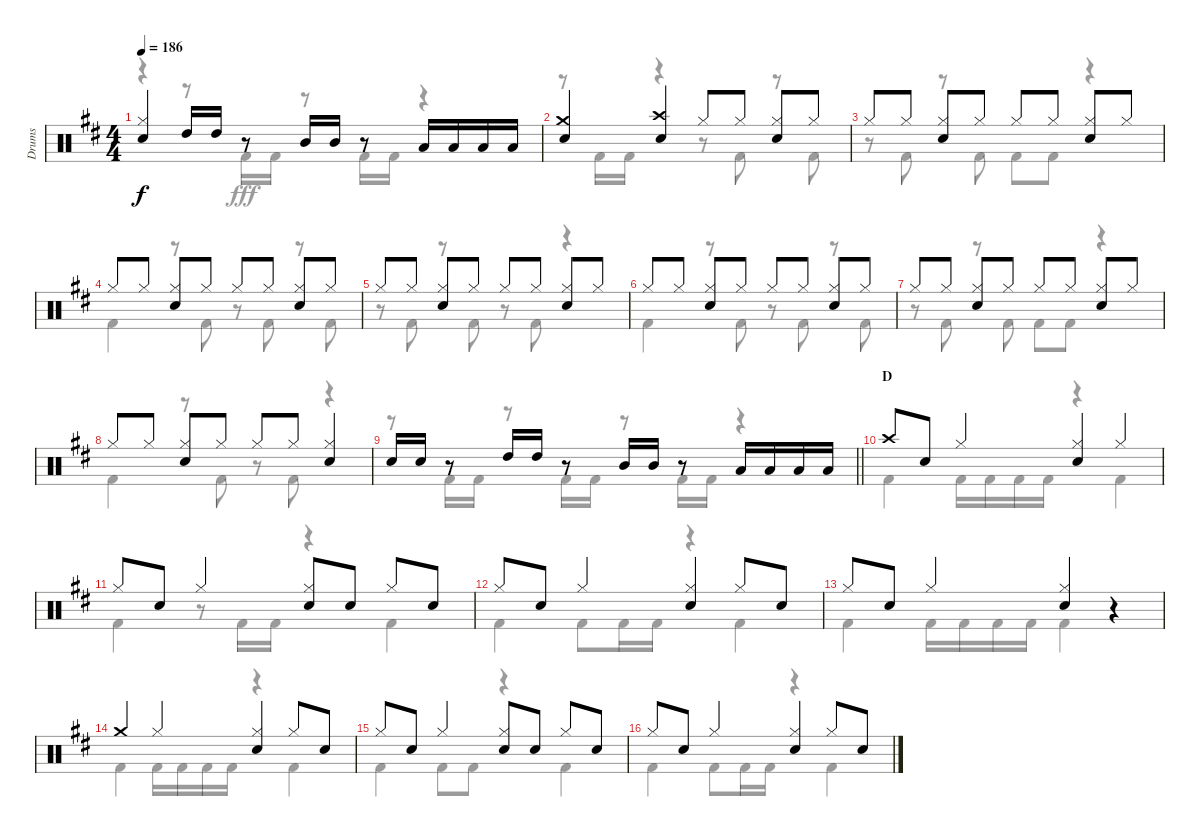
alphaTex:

\track ("Drums" "Drums") {instrument percussion}
\staff {score}
\articulation defaults
\voice
\ts (4 4)
\tempo 186
\clef neutral
\ks d
("Hi-Hat (closed)" "Snare (hit) 2").4{dy f} "High Tom (hit)".16 "High Tom (hit)".16 r.8 "Mid Tom (hit)".16 "Mid Tom (hit)".16 r.8 "Low Tom (hit)".16 "Low Tom (hit)".16 "Low Tom (hit)".16 "Low Tom (hit)".16 |
("Crash medium (hit)" "Snare (hit) 2").4 ("Crash high (hit)" "Snare (hit) 2").4 "Hi-Hat (closed)".8 "Hi-Hat (closed)".8 ("Hi-Hat (closed)" "Snare (hit) 2").8 "Hi-Hat (closed)".8 |
"Hi-Hat (closed)".8 "Hi-Hat (closed)".8 ("Hi-Hat (closed)" "Snare (hit) 2").8 "Hi-Hat (closed)".8 "Hi-Hat (closed)".8 "Hi-Hat (closed)".8 ("Hi-Hat (closed)" "Snare (hit) 2").8 "Hi-Hat (closed)".8 |
"Hi-Hat (closed)".8 "Hi-Hat (closed)".8 ("Hi-Hat (closed)" "Snare (hit) 2").8 "Hi-Hat (closed)".8 "Hi-Hat (closed)".8 "Hi-Hat (closed)".8 ("Hi-Hat (closed)" "Snare (hit) 2").8 "Hi-Hat (closed)".8 |
"Hi-Hat (closed)".8 "Hi-Hat (closed)".8 ("Hi-Hat (closed)" "Snare (hit) 2").8 "Hi-Hat (closed)".8 "Hi-Hat (closed)".8 "Hi-Hat (closed)".8 ("Hi-Hat (closed)" "Snare (hit) 2").8 "Hi-Hat (closed)".8 |
"Hi-Hat (closed)".8 "Hi-Hat (closed)".8 ("Hi-Hat (closed)" "Snare (hit) 2").8 "Hi-Hat (closed)".8 "Hi-Hat (closed)".8 "Hi-Hat (closed)".8 ("Hi-Hat (closed)" "Snare (hit) 2").8 "Hi-Hat (closed)".8 |
"Hi-Hat (closed)".8 "Hi-Hat (closed)".8 ("Hi-Hat (closed)" "Snare (hit) 2").8 "Hi-Hat (closed)".8 "Hi-Hat (closed)".8 "Hi-Hat (closed)".8 ("Hi-Hat (closed)" "Snare (hit) 2").8 "Hi-Hat (closed)".8 |
"Hi-Hat (closed)".8 "Hi-Hat (closed)".8 ("Hi-Hat (closed)" "Snare (hit) 2").8 "Hi-Hat (closed)".8 "Hi-Hat (closed)".8 "Hi-Hat (closed)".8 ("Hi-Hat (closed)" "Snare (hit) 2").4 |
\barLineRight lightlight "Snare (hit) 2".16 "Snare (hit) 2".16
r.8 "High Tom (hit)".16 "High Tom (hit)".16 r.8 "Mid Tom (hit)".16 "Mid Tom (hit)".16 r.8 "Low Tom (hit)".16 "Low Tom (hit)".16 "Low Tom (hit)".16 "Low Tom (hit)".16 |
\section ("" "D")
"Crash high (hit)".8 "Snare (hit) 2".8 "Hi-Hat (closed)".4 ("Hi-Hat (closed)" "Snare (hit) 2").4 "Hi-Hat (closed)".4 |
"Hi-Hat (closed)".8 "Snare (hit) 2".8 "Hi-Hat (closed)".4 ("Hi-Hat (closed)" "Snare (hit) 2").8 "Snare (hit) 2".8 "Hi-Hat (closed)".8 "Snare (hit) 2".8 |
"Hi-Hat (closed)".8 "Snare (hit) 2".8 "Hi-Hat (closed)".4 ("Hi-Hat (closed)" "Snare (hit) 2").4 "Hi-Hat (closed)".8 "Snare (hit) 2".8 |
"Hi-Hat (closed)".8 "Snare (hit) 2".8 "Hi-Hat (closed)".4 ("Hi-Hat (closed)" "Snare (hit) 2").4 r.4 |
"Crash medium (hit)".4 "Hi-Hat (closed)".4 ("Hi-Hat (closed)" "Snare (hit) 2").4 "Hi-Hat (closed)".8 "Snare (hit) 2".8 |
"Hi-Hat (closed)".8 "Snare (hit) 2".8 "Hi-Hat (closed)".4 ("Hi-Hat (closed)" "Snare (hit) 2").8 "Snare (hit) 2".8 "Hi-Hat (closed)".8 "Snare (hit) 2".8 |
"Hi-Hat (closed)".8 "Snare (hit) 2".8 "Hi-Hat (closed)".4 ("Hi-Hat (closed)" "Snare (hit) 2").4 "Hi-Hat (closed)".8 "Snare (hit) 2".8
\voice
\clef neutral
\ottava regular
\simile none
\ks d
r.4{dy fff} r.8 "Kick (hit) 2".16 "Kick (hit) 2".16 r.8 "Kick (hit) 2".16 "Kick (hit) 2".16 r.4 |
r.8 "Kick (hit) 2".16 "Kick (hit) 2".16 r.4 r.8 "Kick (hit) 2".8 r.8 "Kick (hit) 2".8 |
r.8 "Kick (hit) 2".8 r.8 "Kick (hit) 2".8 "Kick (hit) 2".8 "Kick (hit) 2".8 r.4 |
"Kick (hit) 2".4 r.8 "Kick (hit) 2".8 r.8 "Kick (hit) 2".8 r.8 "Kick (hit) 2".8 |
r.8 "Kick (hit) 2".8 r.8 "Kick (hit) 2".8 r.8 "Kick (hit) 2".8 r.4 |
"Kick (hit) 2".4 r.8 "Kick (hit) 2".8 r.8 "Kick (hit) 2".8 r.8 "Kick (hit) 2".8 |
r.8 "Kick (hit) 2".8 r.8 "Kick (hit) 2".8 "Kick (hit) 2".8 "Kick (hit) 2".8 r.4 |
"Kick (hit) 2".4 r.8 "Kick (hit) 2".8 r.8 "Kick (hit) 2".8 r.4 |
\barLineRight lightlight
r.8 "Kick (hit) 2".16 "Kick (hit) 2".16 r.8 "Kick (hit) 2".16 "Kick (hit) 2".16 r.8 "Kick (hit) 2".16 "Kick (hit) 2".16 r.4 |
"Kick (hit) 2".4 "Kick (hit) 2".16 "Kick (hit) 2".16 "Kick (hit) 2".16 "Kick (hit) 2".16 r.4 "Kick (hit) 2".4 |
"Kick (hit) 2".4 r.8 "Kick (hit) 2".16 "Kick (hit) 2".16 r.4 "Kick (hit) 2".4 |
"Kick (hit) 2".4 "Kick (hit) 2".8 "Kick (hit) 2".16 "Kick (hit) 2".16 r.4 "Kick (hit) 2".4 |
"Kick (hit) 2".4 "Kick (hit) 2".16 "Kick (hit) 2".16 "Kick (hit) 2".16 "Kick (hit) 2".16 "Kick (hit) 2".4 r.4 |
"Kick (hit) 2".4 "Kick (hit) 2".16 "Kick (hit) 2".16 "Kick (hit) 2".16 "Kick (hit) 2".16 r.4 "Kick (hit) 2".4 |
"Kick (hit) 2".4 "Kick (hit) 2".8 "Kick (hit) 2".8 r.4 "Kick (hit) 2".4 |
"Kick (hit) 2".4 "Kick (hit) 2".8 "Kick (hit) 2".16 "Kick (hit) 2".16 r.4 "Kick (hit) 2".4
